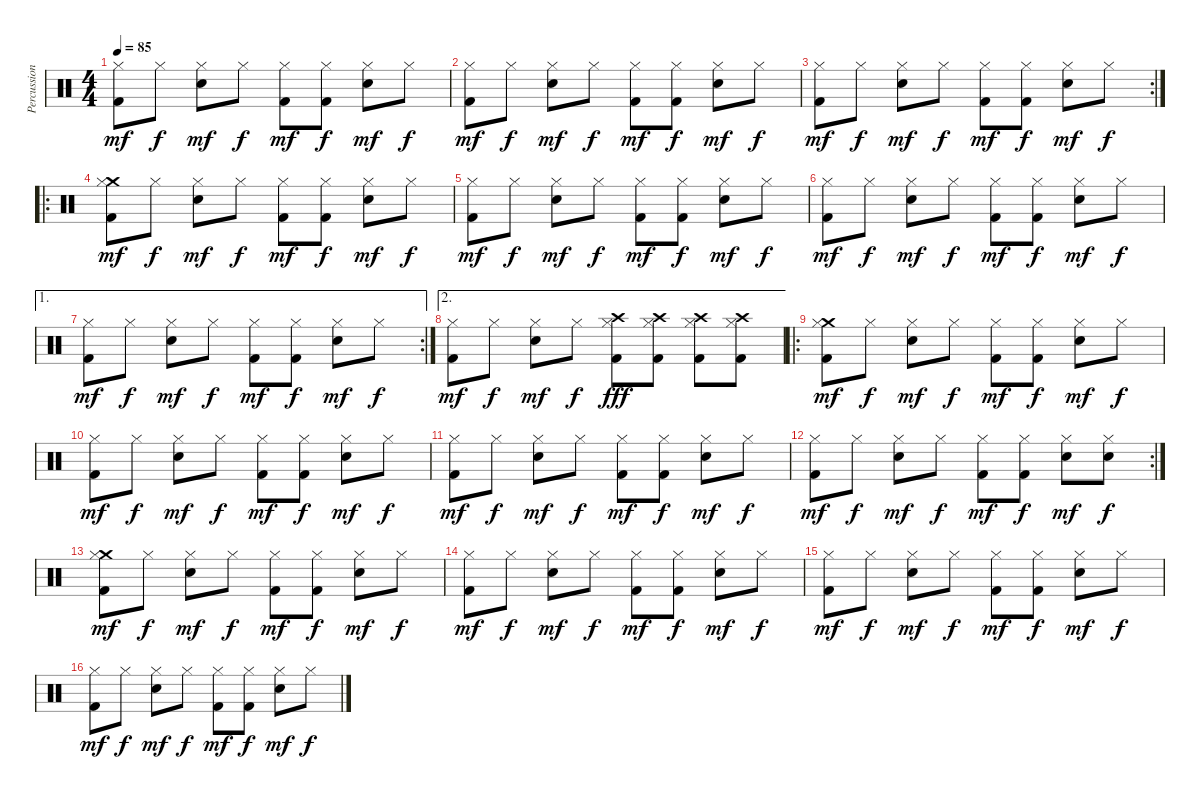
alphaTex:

\track ("Percussion" "Percussion") {instrument percussion}
\staff {score}
\articulation defaults
\ts (4 4)
\tempo 85
\clef neutral
\ks c
("Hi-Hat (closed)" "Kick (hit) 2").8{dy mf} "Hi-Hat (closed)".8{dy f} ("Hi-Hat (closed)" "Snare (hit) 2").8{dy mf} "Hi-Hat (closed)".8{dy f} ("Hi-Hat (closed)" "Kick (hit) 2").8{dy mf} ("Hi-Hat (closed)" "Kick (hit) 2").8{dy f} ("Hi-Hat (closed)" "Snare (hit) 2").8{dy mf} "Hi-Hat (closed)".8{dy f} |
("Hi-Hat (closed)" "Kick (hit) 2").8{dy mf} "Hi-Hat (closed)".8{dy f} ("Hi-Hat (closed)" "Snare (hit) 2").8{dy mf} "Hi-Hat (closed)".8{dy f} ("Hi-Hat (closed)" "Kick (hit) 2").8{dy mf} ("Hi-Hat (closed)" "Kick (hit) 2").8{dy f} ("Hi-Hat (closed)" "Snare (hit) 2").8{dy mf} "Hi-Hat (closed)".8{dy f} |
\rc 2
("Hi-Hat (closed)" "Kick (hit) 2").8{dy mf} "Hi-Hat (closed)".8{dy f} ("Hi-Hat (closed)" "Snare (hit) 2").8{dy mf} "Hi-Hat (closed)".8{dy f} ("Hi-Hat (closed)" "Kick (hit) 2").8{dy mf} ("Hi-Hat (closed)" "Kick (hit) 2").8{dy f} ("Hi-Hat (closed)" "Snare (hit) 2").8{dy mf} "Hi-Hat (closed)".8{dy f} |
\ro
("Crash medium (hit)" "Hi-Hat (closed)" "Kick (hit) 2").8{dy mf} "Hi-Hat (closed)".8{dy f} ("Hi-Hat (closed)" "Snare (hit) 2").8{dy mf} "Hi-Hat (closed)".8{dy f} ("Hi-Hat (closed)" "Kick (hit) 2").8{dy mf} ("Hi-Hat (closed)" "Kick (hit) 2").8{dy f} ("Hi-Hat (closed)" "Snare (hit) 2").8{dy mf} "Hi-Hat (closed)".8{dy f} |
("Hi-Hat (closed)" "Kick (hit) 2").8{dy mf} "Hi-Hat (closed)".8{dy f} ("Hi-Hat (closed)" "Snare (hit) 2").8{dy mf} "Hi-Hat (closed)".8{dy f} ("Hi-Hat (closed)" "Kick (hit) 2").8{dy mf} ("Hi-Hat (closed)" "Kick (hit) 2").8{dy f} ("Hi-Hat (closed)" "Snare (hit) 2").8{dy mf} "Hi-Hat (closed)".8{dy f} |
("Hi-Hat (closed)" "Kick (hit) 2").8{dy mf} "Hi-Hat (closed)".8{dy f} ("Hi-Hat (closed)" "Snare (hit) 2").8{dy mf} "Hi-Hat (closed)".8{dy f} ("Hi-Hat (closed)" "Kick (hit) 2").8{dy mf} ("Hi-Hat (closed)" "Kick (hit) 2").8{dy f} ("Hi-Hat (closed)" "Snare (hit) 2").8{dy mf} "Hi-Hat (closed)".8{dy f} |
\ae 1
\rc 2
("Hi-Hat (closed)" "Kick (hit) 2").8{dy mf} "Hi-Hat (closed)".8{dy f} ("Hi-Hat (closed)" "Snare (hit) 2").8{dy mf} "Hi-Hat (closed)".8{dy f} ("Hi-Hat (closed)" "Kick (hit) 2").8{dy mf} ("Hi-Hat (closed)" "Kick (hit) 2").8{dy f} ("Hi-Hat (closed)" "Snare (hit) 2").8{dy mf} "Hi-Hat (closed)".8{dy f} |
\ae 2
("Hi-Hat (closed)" "Kick (hit) 2").8{dy mf} "Hi-Hat (closed)".8{dy f} ("Hi-Hat (closed)" "Snare (hit) 2").8{dy mf} "Hi-Hat (closed)".8{dy f} ("Crash high (hit)" "Hi-Hat (closed)" "Kick (hit) 2").8{dy fff} ("Crash high (hit)" "Hi-Hat (closed)" "Kick (hit) 2").8 ("Crash high (hit)" "Hi-Hat (closed)" "Kick (hit) 2").8 ("Crash high (hit)" "Hi-Hat (closed)" "Kick (hit) 2").8 |
\ro
("Crash medium (hit)" "Hi-Hat (closed)" "Kick (hit) 2").8{dy mf} "Hi-Hat (closed)".8{dy f} ("Hi-Hat (closed)" "Snare (hit) 2").8{dy mf} "Hi-Hat (closed)".8{dy f} ("Hi-Hat (closed)" "Kick (hit) 2").8{dy mf} ("Hi-Hat (closed)" "Kick (hit) 2").8{dy f} ("Hi-Hat (closed)" "Snare (hit) 2").8{dy mf} "Hi-Hat (closed)".8{dy f} |
("Hi-Hat (closed)" "Kick (hit) 2").8{dy mf} "Hi-Hat (closed)".8{dy f} ("Hi-Hat (closed)" "Snare (hit) 2").8{dy mf} "Hi-Hat (closed)".8{dy f} ("Hi-Hat (closed)" "Kick (hit) 2").8{dy mf} ("Hi-Hat (closed)" "Kick (hit) 2").8{dy f} ("Hi-Hat (closed)" "Snare (hit) 2").8{dy mf} "Hi-Hat (closed)".8{dy f} |
("Hi-Hat (closed)" "Kick (hit) 2").8{dy mf} "Hi-Hat (closed)".8{dy f} ("Hi-Hat (closed)" "Snare (hit) 2").8{dy mf} "Hi-Hat (closed)".8{dy f} ("Hi-Hat (closed)" "Kick (hit) 2").8{dy mf} ("Hi-Hat (closed)" "Kick (hit) 2").8{dy f} ("Hi-Hat (closed)" "Snare (hit) 2").8{dy mf} "Hi-Hat (closed)".8{dy f} |
\rc 2
("Hi-Hat (closed)" "Kick (hit) 2").8{dy mf} "Hi-Hat (closed)".8{dy f} ("Hi-Hat (closed)" "Snare (hit) 2").8{dy mf} "Hi-Hat (closed)".8{dy f} ("Hi-Hat (closed)" "Kick (hit) 2").8{dy mf} ("Hi-Hat (closed)" "Kick (hit) 2").8{dy f} ("Hi-Hat (closed)" "Snare (hit) 2").8{dy mf} ("Hi-Hat (closed)" "Snare (hit) 2").8{dy f} |
("Crash medium (hit)" "Hi-Hat (closed)" "Kick (hit) 2").8{dy mf} "Hi-Hat (closed)".8{dy f} ("Hi-Hat (closed)" "Snare (hit) 2").8{dy mf} "Hi-Hat (closed)".8{dy f} ("Hi-Hat (closed)" "Kick (hit) 2").8{dy mf} ("Hi-Hat (closed)" "Kick (hit) 2").8{dy f} ("Hi-Hat (closed)" "Snare (hit) 2").8{dy mf} "Hi-Hat (closed)".8{dy f} |
("Hi-Hat (closed)" "Kick (hit) 2").8{dy mf} "Hi-Hat (closed)".8{dy f} ("Hi-Hat (closed)" "Snare (hit) 2").8{dy mf} "Hi-Hat (closed)".8{dy f} ("Hi-Hat (closed)" "Kick (hit) 2").8{dy mf} ("Hi-Hat (closed)" "Kick (hit) 2").8{dy f} ("Hi-Hat (closed)" "Snare (hit) 2").8{dy mf} "Hi-Hat (closed)".8{dy f} |
("Hi-Hat (closed)" "Kick (hit) 2").8{dy mf} "Hi-Hat (closed)".8{dy f} ("Hi-Hat (closed)" "Snare (hit) 2").8{dy mf} "Hi-Hat (closed)".8{dy f} ("Hi-Hat (closed)" "Kick (hit) 2").8{dy mf} ("Hi-Hat (closed)" "Kick (hit) 2").8{dy f} ("Hi-Hat (closed)" "Snare (hit) 2").8{dy mf} "Hi-Hat (closed)".8{dy f} |
("Hi-Hat (closed)" "Kick (hit) 2").8{dy mf} "Hi-Hat (closed)".8{dy f} ("Hi-Hat (closed)" "Snare (hit) 2").8{dy mf} "Hi-Hat (closed)".8{dy f} ("Hi-Hat (closed)" "Kick (hit) 2").8{dy mf} ("Hi-Hat (closed)" "Kick (hit) 2").8{dy f} ("Hi-Hat (closed)" "Snare (hit) 2").8{dy mf} "Hi-Hat (closed)".8{dy f}
